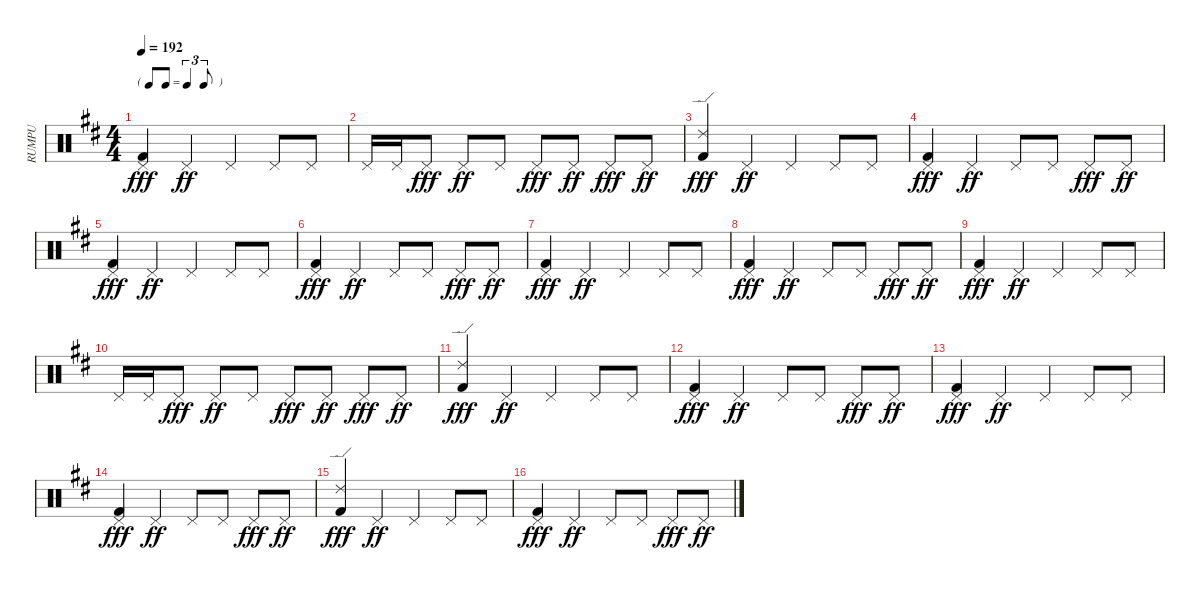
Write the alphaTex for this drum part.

\track ("RUMPU" "RUMPU") {instrument percussion}
\staff {score}
\articulation defaults
\ts (4 4)
\tf triplet8th
\tempo 192
\clef neutral
\ks d
("Pedal Hi-Hat (hit)" "Kick (hit) 2").4{dy fff} "Pedal Hi-Hat (hit)".4{dy ff} "Pedal Hi-Hat (hit)".4 "Pedal Hi-Hat (hit)".8 "Pedal Hi-Hat (hit)".8 |
"Pedal Hi-Hat (hit)".16 "Pedal Hi-Hat (hit)".16 "Pedal Hi-Hat (hit)".8{dy fff} "Pedal Hi-Hat (hit)".8{dy ff} "Pedal Hi-Hat (hit)".8 "Pedal Hi-Hat (hit)".8{dy fff} "Pedal Hi-Hat (hit)".8{dy ff} "Pedal Hi-Hat (hit)".8{dy fff} "Pedal Hi-Hat (hit)".8{dy ff} |
("Ride (edge) 2" "Kick (hit) 2").4{dy fff} "Pedal Hi-Hat (hit)".4{dy ff} "Pedal Hi-Hat (hit)".4 "Pedal Hi-Hat (hit)".8 "Pedal Hi-Hat (hit)".8 |
("Pedal Hi-Hat (hit)" "Kick (hit) 2").4{dy fff} "Pedal Hi-Hat (hit)".4{dy ff} "Pedal Hi-Hat (hit)".8 "Pedal Hi-Hat (hit)".8 "Pedal Hi-Hat (hit)".8{dy fff} "Pedal Hi-Hat (hit)".8{dy ff} |
("Pedal Hi-Hat (hit)" "Kick (hit) 2").4{dy fff} "Pedal Hi-Hat (hit)".4{dy ff} "Pedal Hi-Hat (hit)".4 "Pedal Hi-Hat (hit)".8 "Pedal Hi-Hat (hit)".8 |
("Pedal Hi-Hat (hit)" "Kick (hit) 2").4{dy fff} "Pedal Hi-Hat (hit)".4{dy ff} "Pedal Hi-Hat (hit)".8 "Pedal Hi-Hat (hit)".8 "Pedal Hi-Hat (hit)".8{dy fff} "Pedal Hi-Hat (hit)".8{dy ff} |
("Pedal Hi-Hat (hit)" "Kick (hit) 2").4{dy fff} "Pedal Hi-Hat (hit)".4{dy ff} "Pedal Hi-Hat (hit)".4 "Pedal Hi-Hat (hit)".8 "Pedal Hi-Hat (hit)".8 |
("Pedal Hi-Hat (hit)" "Kick (hit) 2").4{dy fff} "Pedal Hi-Hat (hit)".4{dy ff} "Pedal Hi-Hat (hit)".8 "Pedal Hi-Hat (hit)".8 "Pedal Hi-Hat (hit)".8{dy fff} "Pedal Hi-Hat (hit)".8{dy ff} |
("Pedal Hi-Hat (hit)" "Kick (hit) 2").4{dy fff} "Pedal Hi-Hat (hit)".4{dy ff} "Pedal Hi-Hat (hit)".4 "Pedal Hi-Hat (hit)".8 "Pedal Hi-Hat (hit)".8 |
"Pedal Hi-Hat (hit)".16 "Pedal Hi-Hat (hit)".16 "Pedal Hi-Hat (hit)".8{dy fff} "Pedal Hi-Hat (hit)".8{dy ff} "Pedal Hi-Hat (hit)".8 "Pedal Hi-Hat (hit)".8{dy fff} "Pedal Hi-Hat (hit)".8{dy ff} "Pedal Hi-Hat (hit)".8{dy fff} "Pedal Hi-Hat (hit)".8{dy ff} |
("Ride (edge) 2" "Kick (hit) 2").4{dy fff} "Pedal Hi-Hat (hit)".4{dy ff} "Pedal Hi-Hat (hit)".4 "Pedal Hi-Hat (hit)".8 "Pedal Hi-Hat (hit)".8 |
("Pedal Hi-Hat (hit)" "Kick (hit) 2").4{dy fff} "Pedal Hi-Hat (hit)".4{dy ff} "Pedal Hi-Hat (hit)".8 "Pedal Hi-Hat (hit)".8 "Pedal Hi-Hat (hit)".8{dy fff} "Pedal Hi-Hat (hit)".8{dy ff} |
("Pedal Hi-Hat (hit)" "Kick (hit) 2").4{dy fff} "Pedal Hi-Hat (hit)".4{dy ff} "Pedal Hi-Hat (hit)".4 "Pedal Hi-Hat (hit)".8 "Pedal Hi-Hat (hit)".8 |
("Pedal Hi-Hat (hit)" "Kick (hit) 2").4{dy fff} "Pedal Hi-Hat (hit)".4{dy ff} "Pedal Hi-Hat (hit)".8 "Pedal Hi-Hat (hit)".8 "Pedal Hi-Hat (hit)".8{dy fff} "Pedal Hi-Hat (hit)".8{dy ff} |
("Ride (edge) 2" "Kick (hit) 2").4{dy fff} "Pedal Hi-Hat (hit)".4{dy ff} "Pedal Hi-Hat (hit)".4 "Pedal Hi-Hat (hit)".8 "Pedal Hi-Hat (hit)".8 |
("Pedal Hi-Hat (hit)" "Kick (hit) 2").4{dy fff} "Pedal Hi-Hat (hit)".4{dy ff} "Pedal Hi-Hat (hit)".8 "Pedal Hi-Hat (hit)".8 "Pedal Hi-Hat (hit)".8{dy fff} "Pedal Hi-Hat (hit)".8{dy ff}
